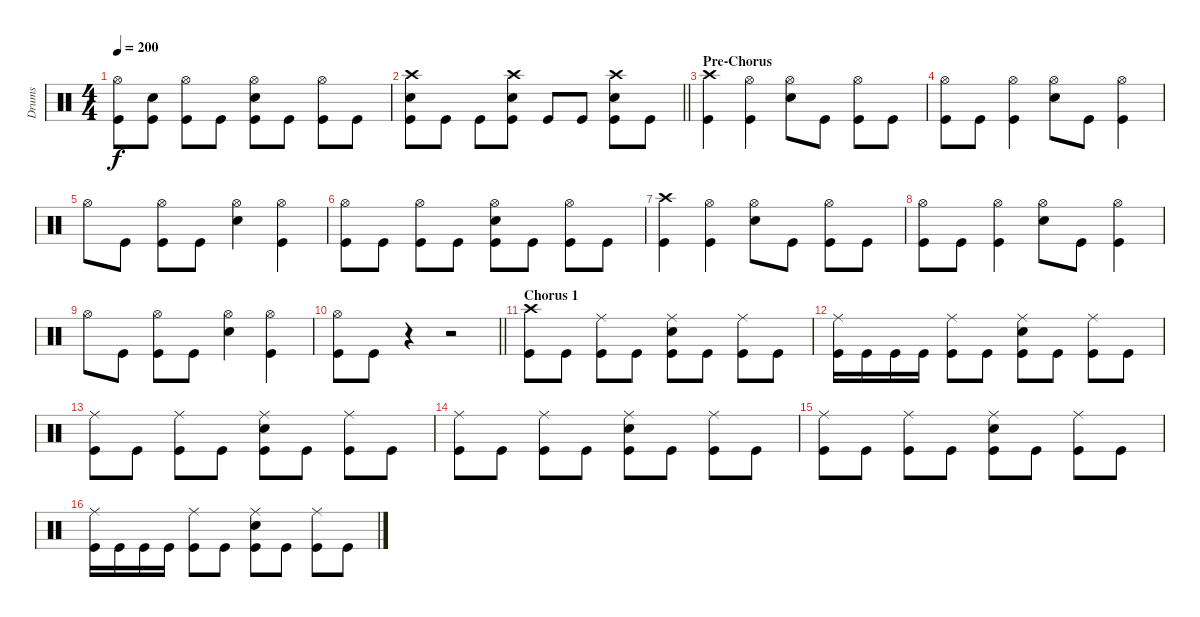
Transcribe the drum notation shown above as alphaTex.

\track ("Drums" "Drums") {instrument percussion}
\staff {score}
\articulation defaults
\ts (4 4)
\tempo 200
\clef neutral
\ks c
("Hi-Hat (open)" "Kick (hit)").8{dy f} ("Snare (hit) 2" "Kick (hit)").8 ("Hi-Hat (open)" "Kick (hit)").8 "Kick (hit)".8 ("Snare (hit) 2" "Hi-Hat (open)" "Kick (hit)").8 "Kick (hit)".8 ("Hi-Hat (open)" "Kick (hit)").8 "Kick (hit)".8 |
\barLineRight lightlight
("Crash high (hit)" "Snare (hit) 2" "Kick (hit)").8 "Kick (hit)".8 "Kick (hit)".8 ("Crash high (hit)" "Snare (hit) 2" "Kick (hit)").8 "Kick (hit)".8 "Kick (hit)".8 ("Crash high (hit)" "Snare (hit) 2" "Kick (hit)").8 "Kick (hit)".8 |
\section ("" "Pre-Chorus")
("Crash high (hit)" "Kick (hit)").4 ("Hi-Hat (open)" "Kick (hit)").4 ("Snare (hit) 2" "Hi-Hat (open)").8 "Kick (hit)".8 ("Hi-Hat (open)" "Kick (hit)").8 "Kick (hit)".8 |
("Hi-Hat (open)" "Kick (hit)").8 "Kick (hit)".8 ("Hi-Hat (open)" "Kick (hit)").4 ("Snare (hit) 2" "Hi-Hat (open)").8 "Kick (hit)".8 ("Hi-Hat (open)" "Kick (hit)").4 |
"Hi-Hat (open)".8 "Kick (hit)".8 ("Hi-Hat (open)" "Kick (hit)").8 "Kick (hit)".8 ("Snare (hit) 2" "Hi-Hat (open)").4 ("Hi-Hat (open)" "Kick (hit)").4 |
("Hi-Hat (open)" "Kick (hit)").8 "Kick (hit)".8 ("Hi-Hat (open)" "Kick (hit)").8 "Kick (hit)".8 ("Snare (hit) 2" "Hi-Hat (open)" "Kick (hit)").8 "Kick (hit)".8 ("Hi-Hat (open)" "Kick (hit)").8 "Kick (hit)".8 |
("Crash high (hit)" "Kick (hit)").4 ("Hi-Hat (open)" "Kick (hit)").4 ("Snare (hit) 2" "Hi-Hat (open)").8 "Kick (hit)".8 ("Hi-Hat (open)" "Kick (hit)").8 "Kick (hit)".8 |
("Hi-Hat (open)" "Kick (hit)").8 "Kick (hit)".8 ("Hi-Hat (open)" "Kick (hit)").4 ("Snare (hit) 2" "Hi-Hat (open)").8 "Kick (hit)".8 ("Hi-Hat (open)" "Kick (hit)").4 |
"Hi-Hat (open)".8 "Kick (hit)".8 ("Hi-Hat (open)" "Kick (hit)").8 "Kick (hit)".8 ("Snare (hit) 2" "Hi-Hat (open)").4 ("Hi-Hat (open)" "Kick (hit)").4 |
\barLineRight lightlight
("Hi-Hat (open)" "Kick (hit)").8 "Kick (hit)".8 r.4 r.2 |
\section ("" "Chorus 1")
("Crash high (hit)" "Kick (hit)").8 "Kick (hit)".8 ("Ride (middle)" "Kick (hit)").8 "Kick (hit)".8 ("Ride (middle)" "Snare (hit) 2" "Kick (hit)").8 "Kick (hit)".8 ("Ride (middle)" "Kick (hit)").8 "Kick (hit)".8 |
("Ride (middle)" "Kick (hit)").16 "Kick (hit)".16 "Kick (hit)".16 "Kick (hit)".16 ("Ride (middle)" "Kick (hit)").8 "Kick (hit)".8 ("Snare (hit) 2" "Ride (middle)" "Kick (hit)").8 "Kick (hit)".8 ("Ride (middle)" "Kick (hit)").8 "Kick (hit)".8 |
("Ride (middle)" "Kick (hit)").8 "Kick (hit)".8 ("Ride (middle)" "Kick (hit)").8 "Kick (hit)".8 ("Ride (middle)" "Snare (hit) 2" "Kick (hit)").8 "Kick (hit)".8 ("Ride (middle)" "Kick (hit)").8 "Kick (hit)".8 |
("Ride (middle)" "Kick (hit)").8 "Kick (hit)".8 ("Ride (middle)" "Kick (hit)").8 "Kick (hit)".8 ("Ride (middle)" "Snare (hit) 2" "Kick (hit)").8 "Kick (hit)".8 ("Ride (middle)" "Kick (hit)").8 "Kick (hit)".8 |
("Ride (middle)" "Kick (hit)").8 "Kick (hit)".8 ("Ride (middle)" "Kick (hit)").8 "Kick (hit)".8 ("Ride (middle)" "Snare (hit) 2" "Kick (hit)").8 "Kick (hit)".8 ("Ride (middle)" "Kick (hit)").8 "Kick (hit)".8 |
("Ride (middle)" "Kick (hit)").16 "Kick (hit)".16 "Kick (hit)".16 "Kick (hit)".16 ("Ride (middle)" "Kick (hit)").8 "Kick (hit)".8 ("Snare (hit) 2" "Ride (middle)" "Kick (hit)").8 "Kick (hit)".8 ("Ride (middle)" "Kick (hit)").8 "Kick (hit)".8
